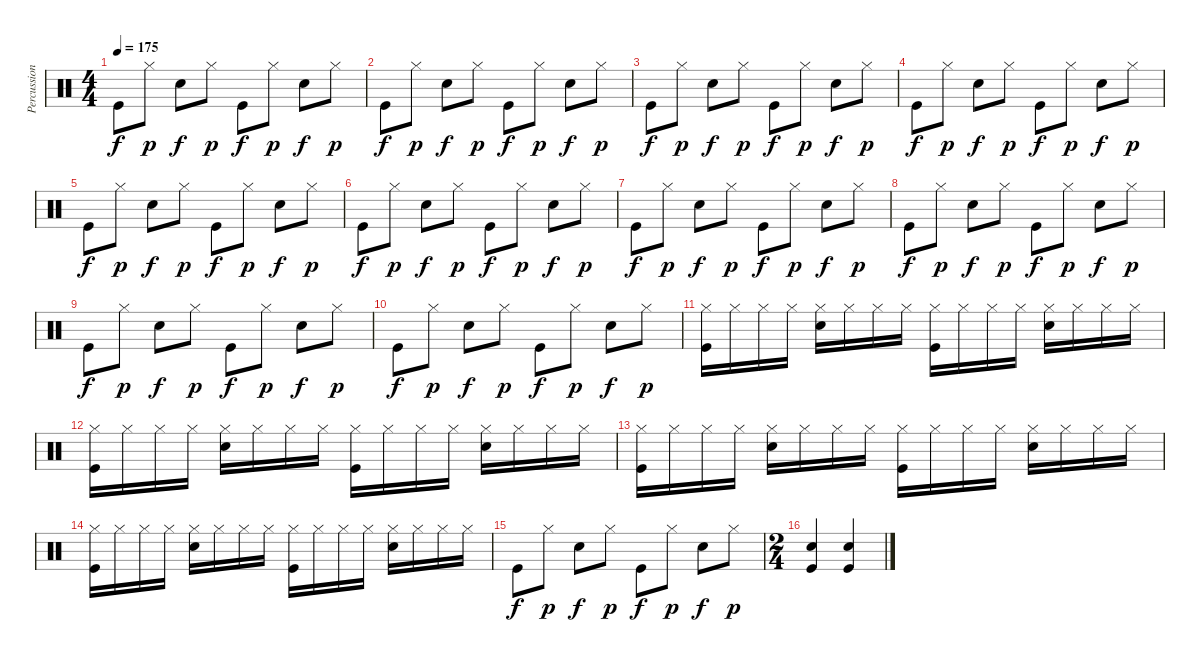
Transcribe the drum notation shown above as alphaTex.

\track ("Percussion" "Percussion") {instrument percussion}
\staff {score}
\articulation defaults
\ts (4 4)
\tempo 175
\clef neutral
\ks c "Kick (hit)".8{dy f} "Hi-Hat (closed)".8{dy p} "Snare (hit) 2".8{dy f} "Hi-Hat (closed)".8{dy p} "Kick (hit)".8{dy f} "Hi-Hat (closed)".8{dy p} "Snare (hit) 2".8{dy f} "Hi-Hat (closed)".8{dy p}
|
"Kick (hit)".8{dy f} "Hi-Hat (closed)".8{dy p} "Snare (hit) 2".8{dy f} "Hi-Hat (closed)".8{dy p} "Kick (hit)".8{dy f} "Hi-Hat (closed)".8{dy p} "Snare (hit) 2".8{dy f} "Hi-Hat (closed)".8{dy p} |
"Kick (hit)".8{dy f} "Hi-Hat (closed)".8{dy p} "Snare (hit) 2".8{dy f} "Hi-Hat (closed)".8{dy p} "Kick (hit)".8{dy f} "Hi-Hat (closed)".8{dy p} "Snare (hit) 2".8{dy f} "Hi-Hat (closed)".8{dy p} |
"Kick (hit)".8{dy f} "Hi-Hat (closed)".8{dy p} "Snare (hit) 2".8{dy f} "Hi-Hat (closed)".8{dy p} "Kick (hit)".8{dy f} "Hi-Hat (closed)".8{dy p} "Snare (hit) 2".8{dy f} "Hi-Hat (closed)".8{dy p} |
"Kick (hit)".8{dy f} "Hi-Hat (closed)".8{dy p} "Snare (hit) 2".8{dy f} "Hi-Hat (closed)".8{dy p} "Kick (hit)".8{dy f} "Hi-Hat (closed)".8{dy p} "Snare (hit) 2".8{dy f} "Hi-Hat (closed)".8{dy p} |
"Kick (hit)".8{dy f} "Hi-Hat (closed)".8{dy p} "Snare (hit) 2".8{dy f} "Hi-Hat (closed)".8{dy p} "Kick (hit)".8{dy f} "Hi-Hat (closed)".8{dy p} "Snare (hit) 2".8{dy f} "Hi-Hat (closed)".8{dy p} |
"Kick (hit)".8{dy f} "Hi-Hat (closed)".8{dy p} "Snare (hit) 2".8{dy f} "Hi-Hat (closed)".8{dy p} "Kick (hit)".8{dy f} "Hi-Hat (closed)".8{dy p} "Snare (hit) 2".8{dy f} "Hi-Hat (closed)".8{dy p} |
"Kick (hit)".8{dy f} "Hi-Hat (closed)".8{dy p} "Snare (hit) 2".8{dy f} "Hi-Hat (closed)".8{dy p} "Kick (hit)".8{dy f} "Hi-Hat (closed)".8{dy p} "Snare (hit) 2".8{dy f} "Hi-Hat (closed)".8{dy p} |
"Kick (hit)".8{dy f} "Hi-Hat (closed)".8{dy p} "Snare (hit) 2".8{dy f} "Hi-Hat (closed)".8{dy p} "Kick (hit)".8{dy f} "Hi-Hat (closed)".8{dy p} "Snare (hit) 2".8{dy f} "Hi-Hat (closed)".8{dy p} |
"Kick (hit)".8{dy f} "Hi-Hat (closed)".8{dy p} "Snare (hit) 2".8{dy f} "Hi-Hat (closed)".8{dy p} "Kick (hit)".8{dy f} "Hi-Hat (closed)".8{dy p} "Snare (hit) 2".8{dy f} "Hi-Hat (closed)".8{dy p} |
("Hi-Hat (closed)" "Kick (hit)").16 "Hi-Hat (closed)".16 "Hi-Hat (closed)".16 "Hi-Hat (closed)".16 ("Hi-Hat (closed)" "Snare (hit) 2").16 "Hi-Hat (closed)".16 "Hi-Hat (closed)".16 "Hi-Hat (closed)".16 ("Hi-Hat (closed)" "Kick (hit)").16 "Hi-Hat (closed)".16 "Hi-Hat (closed)".16 "Hi-Hat (closed)".16 ("Hi-Hat (closed)" "Snare (hit) 2").16 "Hi-Hat (closed)".16 "Hi-Hat (closed)".16 "Hi-Hat (closed)".16 |
("Hi-Hat (closed)" "Kick (hit)").16 "Hi-Hat (closed)".16 "Hi-Hat (closed)".16 "Hi-Hat (closed)".16 ("Hi-Hat (closed)" "Snare (hit) 2").16 "Hi-Hat (closed)".16 "Hi-Hat (closed)".16 "Hi-Hat (closed)".16 ("Hi-Hat (closed)" "Kick (hit)").16 "Hi-Hat (closed)".16 "Hi-Hat (closed)".16 "Hi-Hat (closed)".16 ("Hi-Hat (closed)" "Snare (hit) 2").16 "Hi-Hat (closed)".16 "Hi-Hat (closed)".16 "Hi-Hat (closed)".16 |
("Hi-Hat (closed)" "Kick (hit)").16 "Hi-Hat (closed)".16 "Hi-Hat (closed)".16 "Hi-Hat (closed)".16 ("Hi-Hat (closed)" "Snare (hit) 2").16 "Hi-Hat (closed)".16 "Hi-Hat (closed)".16 "Hi-Hat (closed)".16 ("Hi-Hat (closed)" "Kick (hit)").16 "Hi-Hat (closed)".16 "Hi-Hat (closed)".16 "Hi-Hat (closed)".16 ("Hi-Hat (closed)" "Snare (hit) 2").16 "Hi-Hat (closed)".16 "Hi-Hat (closed)".16 "Hi-Hat (closed)".16 |
("Hi-Hat (closed)" "Kick (hit)").16 "Hi-Hat (closed)".16 "Hi-Hat (closed)".16 "Hi-Hat (closed)".16 ("Hi-Hat (closed)" "Snare (hit) 2").16 "Hi-Hat (closed)".16 "Hi-Hat (closed)".16 "Hi-Hat (closed)".16 ("Hi-Hat (closed)" "Kick (hit)").16 "Hi-Hat (closed)".16 "Hi-Hat (closed)".16 "Hi-Hat (closed)".16 ("Hi-Hat (closed)" "Snare (hit) 2").16 "Hi-Hat (closed)".16 "Hi-Hat (closed)".16 "Hi-Hat (closed)".16 |
"Kick (hit)".8{dy f} "Hi-Hat (closed)".8{dy p} "Snare (hit) 2".8{dy f} "Hi-Hat (closed)".8{dy p} "Kick (hit)".8{dy f} "Hi-Hat (closed)".8{dy p} "Snare (hit) 2".8{dy f} "Hi-Hat (closed)".8{dy p} |
\ts (2 4)
("Snare (hit) 2" "Kick (hit)").4 ("Snare (hit) 2" "Kick (hit)").4
